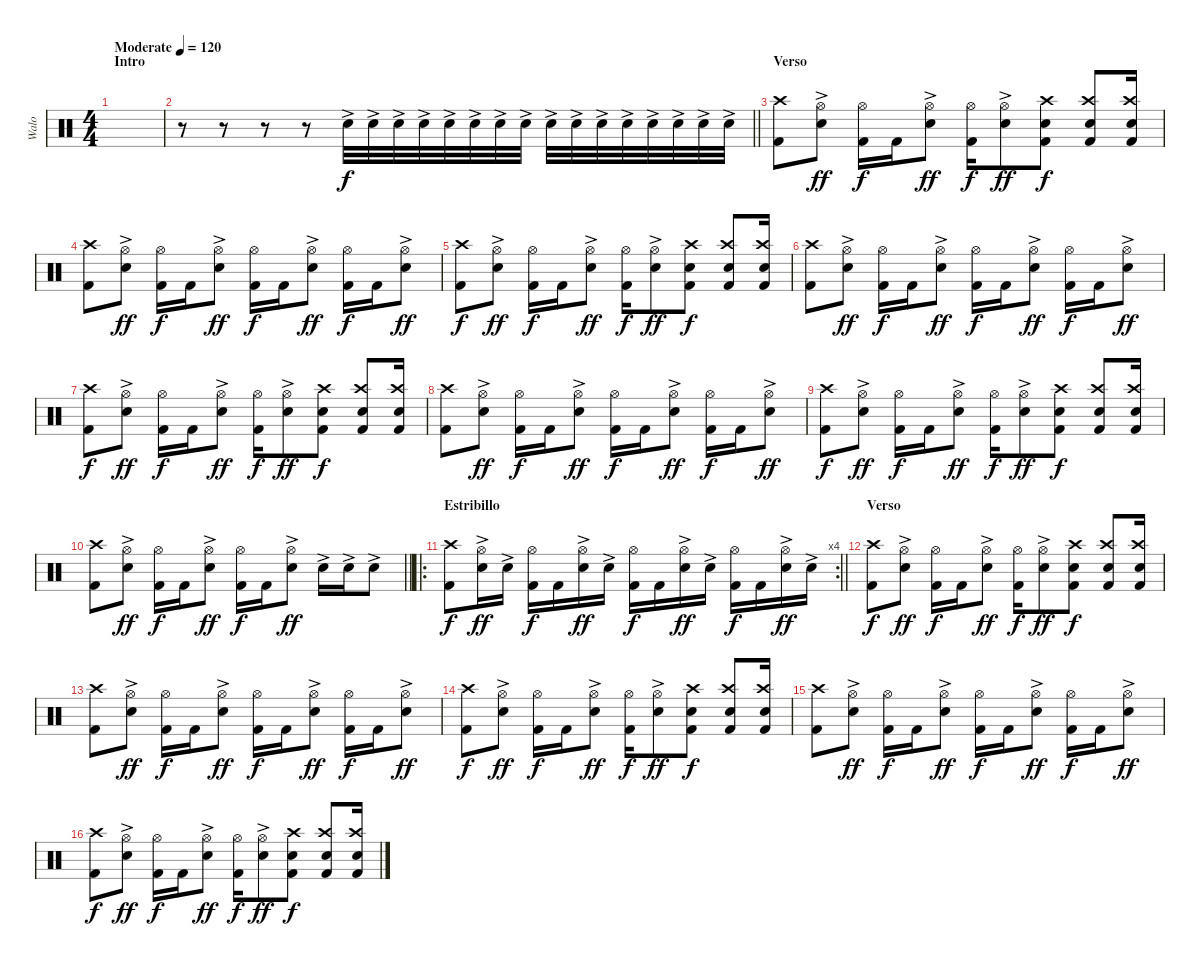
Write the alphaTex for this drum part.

\track ("Walo" "Walo") {instrument percussion}
\staff {score}
\articulation defaults
\ts (4 4)
\section ("" "Intro")
\tempo (120 "Moderate")
\clef neutral
\ks c
|
\barLineRight lightlight
r.8 r.8 r.8 r.8 "Electric Snare (hit)"{ac}.32 "Electric Snare (hit)"{ac}.32 "Electric Snare (hit)"{ac}.32 "Electric Snare (hit)"{ac}.32 "Electric Snare (hit)"{ac}.32 "Electric Snare (hit)"{ac}.32 "Electric Snare (hit)"{ac}.32 "Electric Snare (hit)"{ac}.32 "Electric Snare (hit)"{ac}.32 "Electric Snare (hit)"{ac}.32 "Electric Snare (hit)"{ac}.32 "Electric Snare (hit)"{ac}.32 "Electric Snare (hit)"{ac}.32 "Electric Snare (hit)"{ac}.32 "Electric Snare (hit)"{ac}.32 "Electric Snare (hit)"{ac}.32 |
\section ("" "Verso")
("Crash high (hit)" "Kick (hit) 2").8{dy f} ("Hi-Hat (open)" "Electric Snare (hit)"{ac}).8{dy ff} ("Hi-Hat (open)" "Kick (hit) 2").16{dy f} "Kick (hit) 2".16 ("Hi-Hat (open)" "Electric Snare (hit)"{ac}).8{dy ff} ("Kick (hit) 2" "Hi-Hat (open)").16{dy f} ("Hi-Hat (open)" "Electric Snare (hit)"{ac}).8{dy ff} ("Kick (hit) 2" "Crash high (hit)" "Electric Snare (hit)").8{dy f} ("Kick (hit) 2" "Crash high (hit)" "Electric Snare (hit)").8 ("Electric Snare (hit)" "Kick (hit) 2" "Crash high (hit)").16 |
("Kick (hit) 2" "Crash high (hit)").8 ("Hi-Hat (open)" "Electric Snare (hit)"{ac}).8{dy ff} ("Hi-Hat (open)" "Kick (hit) 2").16{dy f} "Kick (hit) 2".16 ("Hi-Hat (open)" "Electric Snare (hit)"{ac}).8{dy ff} ("Hi-Hat (open)" "Kick (hit) 2").16{dy f} "Kick (hit) 2".16 ("Hi-Hat (open)" "Electric Snare (hit)"{ac}).8{dy ff} ("Hi-Hat (open)" "Kick (hit) 2").16{dy f} "Kick (hit) 2".16 ("Hi-Hat (open)" "Electric Snare (hit)"{ac}).8{dy ff} |
("Crash high (hit)" "Kick (hit) 2").8{dy f} ("Hi-Hat (open)" "Electric Snare (hit)"{ac}).8{dy ff} ("Hi-Hat (open)" "Kick (hit) 2").16{dy f} "Kick (hit) 2".16 ("Hi-Hat (open)" "Electric Snare (hit)"{ac}).8{dy ff} ("Kick (hit) 2" "Hi-Hat (open)").16{dy f} ("Hi-Hat (open)" "Electric Snare (hit)"{ac}).8{dy ff} ("Kick (hit) 2" "Crash high (hit)" "Electric Snare (hit)").8{dy f} ("Kick (hit) 2" "Crash high (hit)" "Electric Snare (hit)").8 ("Electric Snare (hit)" "Kick (hit) 2" "Crash high (hit)").16 |
("Kick (hit) 2" "Crash high (hit)").8 ("Hi-Hat (open)" "Electric Snare (hit)"{ac}).8{dy ff} ("Hi-Hat (open)" "Kick (hit) 2").16{dy f} "Kick (hit) 2".16 ("Hi-Hat (open)" "Electric Snare (hit)"{ac}).8{dy ff} ("Hi-Hat (open)" "Kick (hit) 2").16{dy f} "Kick (hit) 2".16 ("Hi-Hat (open)" "Electric Snare (hit)"{ac}).8{dy ff} ("Hi-Hat (open)" "Kick (hit) 2").16{dy f} "Kick (hit) 2".16 ("Hi-Hat (open)" "Electric Snare (hit)"{ac}).8{dy ff} |
("Crash high (hit)" "Kick (hit) 2").8{dy f} ("Hi-Hat (open)" "Electric Snare (hit)"{ac}).8{dy ff} ("Hi-Hat (open)" "Kick (hit) 2").16{dy f} "Kick (hit) 2".16 ("Hi-Hat (open)" "Electric Snare (hit)"{ac}).8{dy ff} ("Kick (hit) 2" "Hi-Hat (open)").16{dy f} ("Hi-Hat (open)" "Electric Snare (hit)"{ac}).8{dy ff} ("Kick (hit) 2" "Crash high (hit)" "Electric Snare (hit)").8{dy f} ("Kick (hit) 2" "Crash high (hit)" "Electric Snare (hit)").8 ("Electric Snare (hit)" "Kick (hit) 2" "Crash high (hit)").16 |
("Kick (hit) 2" "Crash high (hit)").8 ("Hi-Hat (open)" "Electric Snare (hit)"{ac}).8{dy ff} ("Hi-Hat (open)" "Kick (hit) 2").16{dy f} "Kick (hit) 2".16 ("Hi-Hat (open)" "Electric Snare (hit)"{ac}).8{dy ff} ("Hi-Hat (open)" "Kick (hit) 2").16{dy f} "Kick (hit) 2".16 ("Hi-Hat (open)" "Electric Snare (hit)"{ac}).8{dy ff} ("Hi-Hat (open)" "Kick (hit) 2").16{dy f} "Kick (hit) 2".16 ("Hi-Hat (open)" "Electric Snare (hit)"{ac}).8{dy ff} |
("Crash high (hit)" "Kick (hit) 2").8{dy f} ("Hi-Hat (open)" "Electric Snare (hit)"{ac}).8{dy ff} ("Hi-Hat (open)" "Kick (hit) 2").16{dy f} "Kick (hit) 2".16 ("Hi-Hat (open)" "Electric Snare (hit)"{ac}).8{dy ff} ("Kick (hit) 2" "Hi-Hat (open)").16{dy f} ("Hi-Hat (open)" "Electric Snare (hit)"{ac}).8{dy ff} ("Kick (hit) 2" "Crash high (hit)" "Electric Snare (hit)").8{dy f} ("Kick (hit) 2" "Crash high (hit)" "Electric Snare (hit)").8 ("Electric Snare (hit)" "Kick (hit) 2" "Crash high (hit)").16 |
\barLineRight lightlight
("Kick (hit) 2" "Crash high (hit)").8 ("Hi-Hat (open)" "Electric Snare (hit)"{ac}).8{dy ff} ("Hi-Hat (open)" "Kick (hit) 2").16{dy f} "Kick (hit) 2".16 ("Hi-Hat (open)" "Electric Snare (hit)"{ac}).8{dy ff} ("Hi-Hat (open)" "Kick (hit) 2").16{dy f} "Kick (hit) 2".16 ("Hi-Hat (open)" "Electric Snare (hit)"{ac}).8{dy ff} "Electric Snare (hit)"{ac}.16 "Electric Snare (hit)"{ac}.16 "Electric Snare (hit)"{ac}.8 |
\ro
\rc 4
\section ("" "Estribillo")
\barLineRight lightlight
("Crash high (hit)" "Kick (hit) 2").8{dy f} ("Hi-Hat (open)" "Electric Snare (hit)"{ac}).16{dy ff} "Electric Snare (hit)"{ac}.16 ("Hi-Hat (open)" "Kick (hit) 2").16{dy f} "Kick (hit) 2".16 ("Hi-Hat (open)" "Electric Snare (hit)"{ac}).16{dy ff} "Electric Snare (hit)"{ac}.16 ("Hi-Hat (open)" "Kick (hit) 2").16{dy f} "Kick (hit) 2".16 ("Hi-Hat (open)" "Electric Snare (hit)"{ac}).16{dy ff} "Electric Snare (hit)"{ac}.16 ("Hi-Hat (open)" "Kick (hit) 2").16{dy f} "Kick (hit) 2".16 ("Hi-Hat (open)" "Electric Snare (hit)"{ac}).16{dy ff} "Electric Snare (hit)"{ac}.16 |
\section ("" "Verso")
("Crash high (hit)" "Kick (hit) 2").8{dy f} ("Hi-Hat (open)" "Electric Snare (hit)"{ac}).8{dy ff} ("Hi-Hat (open)" "Kick (hit) 2").16{dy f} "Kick (hit) 2".16 ("Hi-Hat (open)" "Electric Snare (hit)"{ac}).8{dy ff} ("Kick (hit) 2" "Hi-Hat (open)").16{dy f} ("Hi-Hat (open)" "Electric Snare (hit)"{ac}).8{dy ff} ("Kick (hit) 2" "Crash high (hit)" "Electric Snare (hit)").8{dy f} ("Kick (hit) 2" "Crash high (hit)" "Electric Snare (hit)").8 ("Electric Snare (hit)" "Kick (hit) 2" "Crash high (hit)").16 |
("Kick (hit) 2" "Crash high (hit)").8 ("Hi-Hat (open)" "Electric Snare (hit)"{ac}).8{dy ff} ("Hi-Hat (open)" "Kick (hit) 2").16{dy f} "Kick (hit) 2".16 ("Hi-Hat (open)" "Electric Snare (hit)"{ac}).8{dy ff} ("Hi-Hat (open)" "Kick (hit) 2").16{dy f} "Kick (hit) 2".16 ("Hi-Hat (open)" "Electric Snare (hit)"{ac}).8{dy ff} ("Hi-Hat (open)" "Kick (hit) 2").16{dy f} "Kick (hit) 2".16 ("Hi-Hat (open)" "Electric Snare (hit)"{ac}).8{dy ff} |
("Crash high (hit)" "Kick (hit) 2").8{dy f} ("Hi-Hat (open)" "Electric Snare (hit)"{ac}).8{dy ff} ("Hi-Hat (open)" "Kick (hit) 2").16{dy f} "Kick (hit) 2".16 ("Hi-Hat (open)" "Electric Snare (hit)"{ac}).8{dy ff} ("Kick (hit) 2" "Hi-Hat (open)").16{dy f} ("Hi-Hat (open)" "Electric Snare (hit)"{ac}).8{dy ff} ("Kick (hit) 2" "Crash high (hit)" "Electric Snare (hit)").8{dy f} ("Kick (hit) 2" "Crash high (hit)" "Electric Snare (hit)").8 ("Electric Snare (hit)" "Kick (hit) 2" "Crash high (hit)").16 |
("Kick (hit) 2" "Crash high (hit)").8 ("Hi-Hat (open)" "Electric Snare (hit)"{ac}).8{dy ff} ("Hi-Hat (open)" "Kick (hit) 2").16{dy f} "Kick (hit) 2".16 ("Hi-Hat (open)" "Electric Snare (hit)"{ac}).8{dy ff} ("Hi-Hat (open)" "Kick (hit) 2").16{dy f} "Kick (hit) 2".16 ("Hi-Hat (open)" "Electric Snare (hit)"{ac}).8{dy ff} ("Hi-Hat (open)" "Kick (hit) 2").16{dy f} "Kick (hit) 2".16 ("Hi-Hat (open)" "Electric Snare (hit)"{ac}).8{dy ff} |
("Crash high (hit)" "Kick (hit) 2").8{dy f} ("Hi-Hat (open)" "Electric Snare (hit)"{ac}).8{dy ff} ("Hi-Hat (open)" "Kick (hit) 2").16{dy f} "Kick (hit) 2".16 ("Hi-Hat (open)" "Electric Snare (hit)"{ac}).8{dy ff} ("Kick (hit) 2" "Hi-Hat (open)").16{dy f} ("Hi-Hat (open)" "Electric Snare (hit)"{ac}).8{dy ff} ("Kick (hit) 2" "Crash high (hit)" "Electric Snare (hit)").8{dy f} ("Kick (hit) 2" "Crash high (hit)" "Electric Snare (hit)").8 ("Electric Snare (hit)" "Kick (hit) 2" "Crash high (hit)").16
